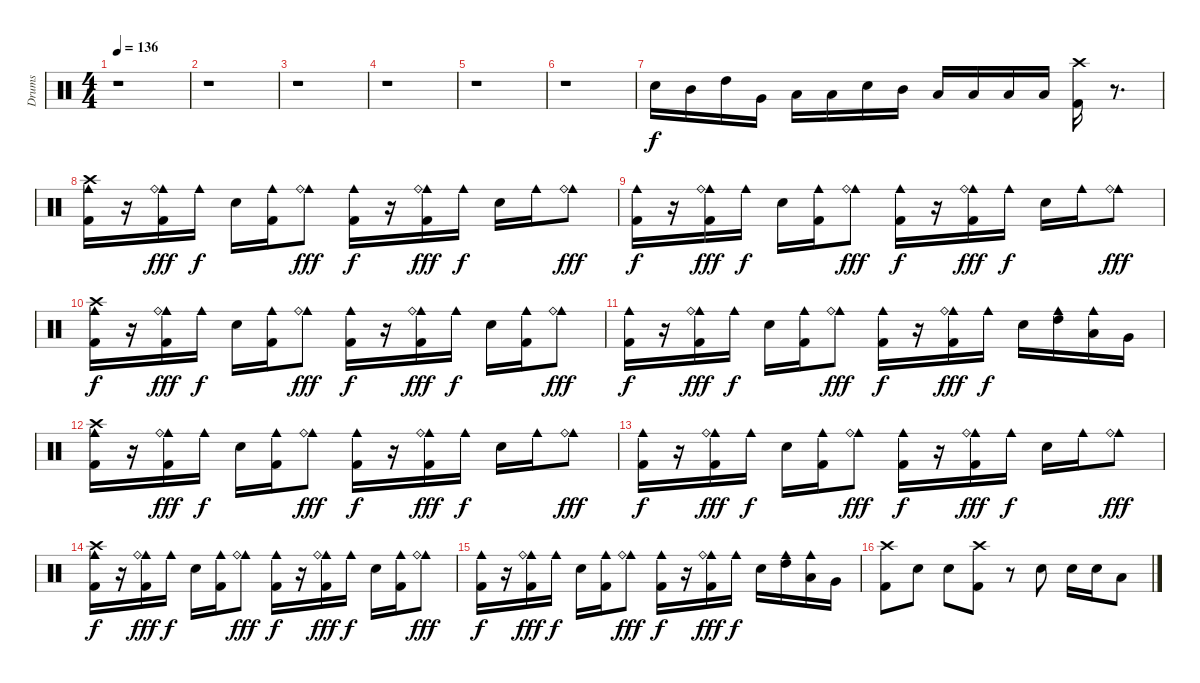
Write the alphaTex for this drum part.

\track ("Drums" "Drums") {instrument percussion}
\staff {score}
\articulation defaults
\ts (4 4)
\tempo 136
\clef neutral
\ks c
r.1{dy f} |
r.1 |
r.1 |
r.1 |
r.1 |
r.1 |
"Metronome (bell)".16{volume 14} "Mid Tom (hit)".16 "High Tom (hit)".16 "Very Low Tom (hit)".16 "Low Floor Tom (hit)".16 "Low Floor Tom (hit)".16 "Metronome (bell)".16 "Mid Tom (hit)".16 "Low Floor Tom (hit)".16 "Low Floor Tom (hit)".16 "Low Tom (hit)".16 "Low Floor Tom (hit)".16 ("Kick (hit) 2" "Crash high (hit)").16 r.8{d} |
("Cowbell medium (hit)" "Kick (hit) 2" "Crash high (hit)").16 r.16 ("Cowbell medium (hit)" "Kick (hit) 2" "Ride (bell)").16{dy fff} "Cowbell medium (hit)".16{dy f} "Metronome (bell)".16 ("Cowbell medium (hit)" "Kick (hit) 2").16 ("Cowbell medium (hit)" "Ride (bell)").8{dy fff} ("Kick (hit) 2" "Cowbell medium (hit)").16{dy f} r.16 ("Cowbell medium (hit)" "Kick (hit) 2" "Ride (bell)").16{dy fff} "Cowbell medium (hit)".16{dy f} "Metronome (bell)".16 "Cowbell medium (hit)".16 ("Cowbell medium (hit)" "Ride (bell)").8{dy fff} |
("Kick (hit) 2" "Cowbell medium (hit)").16{dy f} r.16 ("Kick (hit) 2" "Cowbell medium (hit)" "Ride (bell)").16{dy fff} "Cowbell medium (hit)".16{dy f} "Metronome (bell)".16 ("Cowbell medium (hit)" "Kick (hit) 2").16 ("Cowbell medium (hit)" "Ride (bell)").8{dy fff} ("Kick (hit) 2" "Cowbell medium (hit)").16{dy f} r.16 ("Kick (hit) 2" "Cowbell medium (hit)" "Ride (bell)").16{dy fff} "Cowbell medium (hit)".16{dy f} "Metronome (bell)".16 "Cowbell medium (hit)".16 ("Cowbell medium (hit)" "Ride (bell)").8{dy fff} |
("Cowbell medium (hit)" "Kick (hit) 2" "Crash high (hit)").16{dy f} r.16 ("Cowbell medium (hit)" "Kick (hit) 2" "Ride (bell)").16{dy fff} "Cowbell medium (hit)".16{dy f} "Metronome (bell)".16 ("Cowbell medium (hit)" "Kick (hit) 2").16 ("Cowbell medium (hit)" "Ride (bell)").8{dy fff} ("Kick (hit) 2" "Cowbell medium (hit)").16{dy f} r.16 ("Cowbell medium (hit)" "Kick (hit) 2" "Ride (bell)").16{dy fff} "Cowbell medium (hit)".16{dy f} "Metronome (bell)".16 ("Cowbell medium (hit)" "Kick (hit) 2").16 ("Cowbell medium (hit)" "Ride (bell)").8{dy fff} |
("Kick (hit) 2" "Cowbell medium (hit)").16{dy f} r.16 ("Kick (hit) 2" "Cowbell medium (hit)" "Ride (bell)").16{dy fff} "Cowbell medium (hit)".16{dy f} "Metronome (bell)".16 ("Cowbell medium (hit)" "Kick (hit) 2").16 ("Cowbell medium (hit)" "Ride (bell)").8{dy fff} ("Kick (hit) 2" "Cowbell medium (hit)").16{dy f} r.16 ("Kick (hit) 2" "Cowbell medium (hit)" "Ride (bell)").16{dy fff} "Cowbell medium (hit)".16{dy f} "Metronome (bell)".16 ("Cowbell medium (hit)" "High Tom (hit)").16 ("Cowbell medium (hit)" "Low Tom (hit)").16 "Very Low Tom (hit)".16 |
("Cowbell medium (hit)" "Kick (hit) 2" "Crash high (hit)").16 r.16 ("Cowbell medium (hit)" "Kick (hit) 2" "Ride (bell)").16{dy fff} "Cowbell medium (hit)".16{dy f} "Metronome (bell)".16 ("Cowbell medium (hit)" "Kick (hit) 2").16 ("Cowbell medium (hit)" "Ride (bell)").8{dy fff} ("Kick (hit) 2" "Cowbell medium (hit)").16{dy f} r.16 ("Cowbell medium (hit)" "Kick (hit) 2" "Ride (bell)").16{dy fff} "Cowbell medium (hit)".16{dy f} "Metronome (bell)".16 "Cowbell medium (hit)".16 ("Cowbell medium (hit)" "Ride (bell)").8{dy fff} |
("Kick (hit) 2" "Cowbell medium (hit)").16{dy f} r.16 ("Kick (hit) 2" "Cowbell medium (hit)" "Ride (bell)").16{dy fff} "Cowbell medium (hit)".16{dy f} "Metronome (bell)".16 ("Cowbell medium (hit)" "Kick (hit) 2").16 ("Cowbell medium (hit)" "Ride (bell)").8{dy fff} ("Kick (hit) 2" "Cowbell medium (hit)").16{dy f} r.16 ("Kick (hit) 2" "Cowbell medium (hit)" "Ride (bell)").16{dy fff} "Cowbell medium (hit)".16{dy f} "Metronome (bell)".16 "Cowbell medium (hit)".16 ("Cowbell medium (hit)" "Ride (bell)").8{dy fff} |
("Cowbell medium (hit)" "Kick (hit) 2" "Crash high (hit)").16{dy f} r.16 ("Cowbell medium (hit)" "Kick (hit) 2" "Ride (bell)").16{dy fff} "Cowbell medium (hit)".16{dy f} "Metronome (bell)".16 ("Cowbell medium (hit)" "Kick (hit) 2").16 ("Cowbell medium (hit)" "Ride (bell)").8{dy fff} ("Kick (hit) 2" "Cowbell medium (hit)").16{dy f} r.16 ("Cowbell medium (hit)" "Kick (hit) 2" "Ride (bell)").16{dy fff} "Cowbell medium (hit)".16{dy f} "Metronome (bell)".16 ("Cowbell medium (hit)" "Kick (hit) 2").16 ("Cowbell medium (hit)" "Ride (bell)").8{dy fff} |
("Kick (hit) 2" "Cowbell medium (hit)").16{dy f} r.16 ("Kick (hit) 2" "Cowbell medium (hit)" "Ride (bell)").16{dy fff} "Cowbell medium (hit)".16{dy f} "Metronome (bell)".16 ("Cowbell medium (hit)" "Kick (hit) 2").16 ("Cowbell medium (hit)" "Ride (bell)").8{dy fff} ("Kick (hit) 2" "Cowbell medium (hit)").16{dy f} r.16 ("Kick (hit) 2" "Cowbell medium (hit)" "Ride (bell)").16{dy fff} "Cowbell medium (hit)".16{dy f} "Metronome (bell)".16 ("Cowbell medium (hit)" "High Tom (hit)").16 ("Cowbell medium (hit)" "Low Tom (hit)").16 "Very Low Tom (hit)".16 |
("Kick (hit) 2" "Crash high (hit)").8 "Metronome (bell)".8 "Metronome (bell)".8 ("Kick (hit) 2" "Crash high (hit)").8 r.8 "Metronome (bell)".8 "Metronome (bell)".16 "Metronome (bell)".16 "Low Tom (hit)".8
